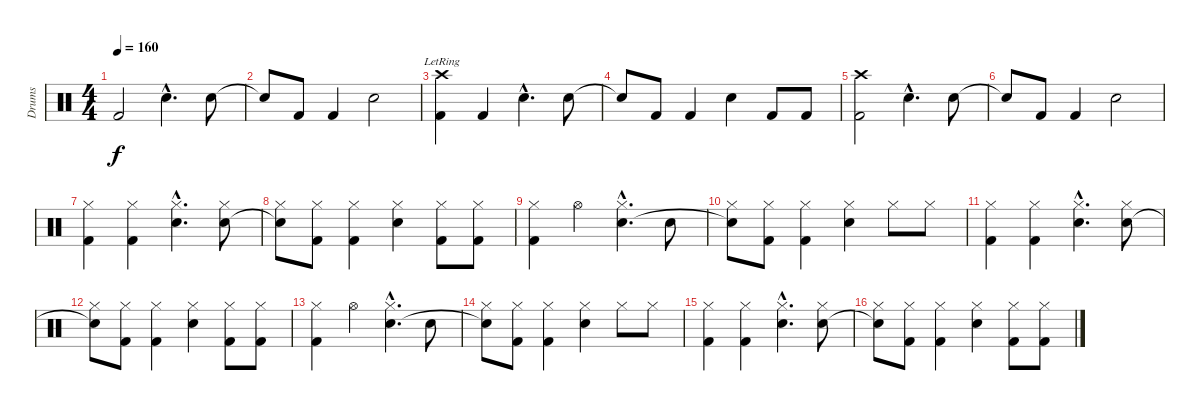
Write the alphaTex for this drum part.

\track ("Drums" "Drums") {instrument percussion}
\staff {score}
\articulation defaults
\ts (4 4)
\tempo 160
\clef neutral
\ks c "Kick (hit) 2".2{dy f} "Snare (hit) 2"{hac}.4{d} "Snare (hit) 2".8
|
"Snare (hit) 2"{t}.8 "Kick (hit) 2".8 "Kick (hit) 2".4 "Snare (hit) 2".2 |
("Crash high (hit)"{lr} "Kick (hit) 2").4 "Kick (hit) 2".4 "Snare (hit) 2"{hac}.4{d} "Snare (hit) 2".8 |
"Snare (hit) 2"{t}.8 "Kick (hit) 2".8 "Kick (hit) 2".4 "Snare (hit) 2".4 "Kick (hit) 2".8 "Kick (hit) 2".8 |
("Crash high (hit)" "Kick (hit) 2").2 "Snare (hit) 2"{hac}.4{d} "Snare (hit) 2".8 |
"Snare (hit) 2"{t}.8 "Kick (hit) 2".8 "Kick (hit) 2".4 "Snare (hit) 2".2 |
("Hi-Hat (closed)" "Kick (hit) 2").4 ("Hi-Hat (closed)" "Kick (hit) 2").4 ("Hi-Hat (closed)"{hac} "Snare (hit) 2"{hac}).4{d} ("Hi-Hat (closed)" "Snare (hit) 2").8 |
("Hi-Hat (closed)" "Snare (hit) 2"{t}).8 ("Hi-Hat (closed)" "Kick (hit) 2").8 ("Hi-Hat (closed)" "Kick (hit) 2").4 ("Hi-Hat (closed)" "Snare (hit) 2").4 ("Hi-Hat (closed)" "Kick (hit) 2").8 ("Hi-Hat (closed)" "Kick (hit) 2").8 |
("Hi-Hat (closed)" "Kick (hit) 2").4 "Hi-Hat (open)".4 ("Hi-Hat (closed)"{hac} "Snare (hit) 2"{hac}).4{d} "Snare (hit) 2".8 |
("Hi-Hat (closed)" "Snare (hit) 2"{t}).8 ("Hi-Hat (closed)" "Kick (hit) 2").8 ("Hi-Hat (closed)" "Kick (hit) 2").4 ("Hi-Hat (closed)" "Snare (hit) 2").4 "Hi-Hat (closed)".8 "Hi-Hat (closed)".8 |
("Hi-Hat (closed)" "Kick (hit) 2").4 ("Hi-Hat (closed)" "Kick (hit) 2").4 ("Hi-Hat (closed)"{hac} "Snare (hit) 2"{hac}).4{d} ("Hi-Hat (closed)" "Snare (hit) 2").8 |
("Hi-Hat (closed)" "Snare (hit) 2"{t}).8 ("Hi-Hat (closed)" "Kick (hit) 2").8 ("Hi-Hat (closed)" "Kick (hit) 2").4 ("Hi-Hat (closed)" "Snare (hit) 2").4 ("Hi-Hat (closed)" "Kick (hit) 2").8 ("Hi-Hat (closed)" "Kick (hit) 2").8 |
("Hi-Hat (closed)" "Kick (hit) 2").4 "Hi-Hat (open)".4 ("Hi-Hat (closed)"{hac} "Snare (hit) 2"{hac}).4{d} "Snare (hit) 2".8 |
("Hi-Hat (closed)" "Snare (hit) 2"{t}).8 ("Hi-Hat (closed)" "Kick (hit) 2").8 ("Hi-Hat (closed)" "Kick (hit) 2").4 ("Hi-Hat (closed)" "Snare (hit) 2").4 "Hi-Hat (closed)".8 "Hi-Hat (closed)".8 |
("Hi-Hat (closed)" "Kick (hit) 2").4 ("Hi-Hat (closed)" "Kick (hit) 2").4 ("Hi-Hat (closed)"{hac} "Snare (hit) 2"{hac}).4{d} ("Hi-Hat (closed)" "Snare (hit) 2").8 |
("Hi-Hat (closed)" "Snare (hit) 2"{t}).8 ("Hi-Hat (closed)" "Kick (hit) 2").8 ("Hi-Hat (closed)" "Kick (hit) 2").4 ("Hi-Hat (closed)" "Snare (hit) 2").4 ("Hi-Hat (closed)" "Kick (hit) 2").8 ("Hi-Hat (closed)" "Kick (hit) 2").8
